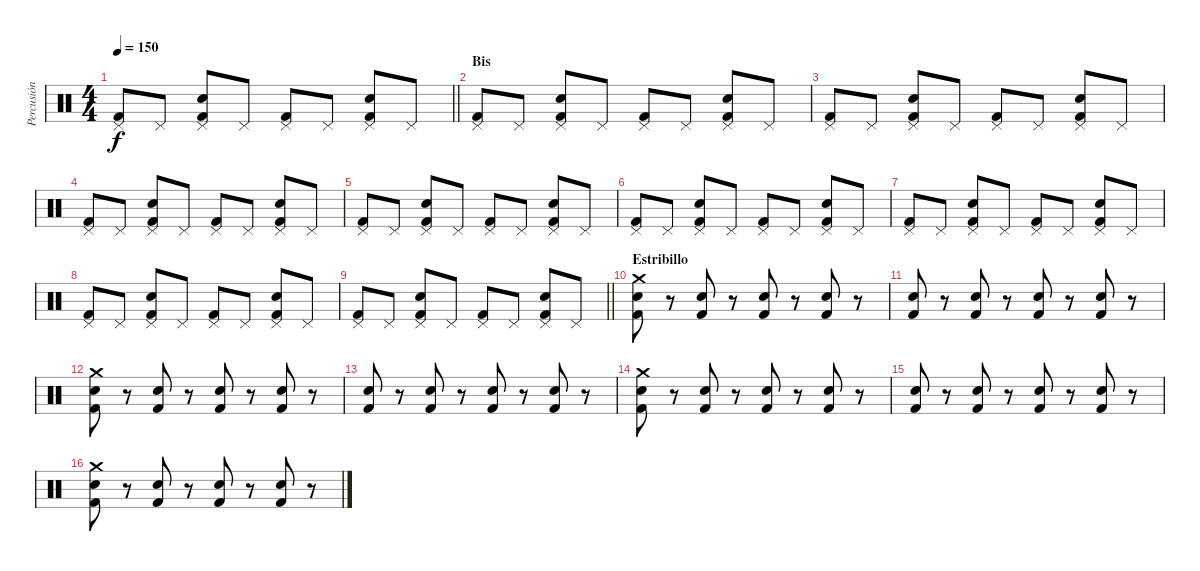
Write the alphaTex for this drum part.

\track ("Percusión" "Percusión") {instrument percussion}
\staff {score}
\articulation defaults
\ts (4 4)
\tempo 150
\clef neutral
\barLineRight lightlight
\ks c
("Pedal Hi-Hat (hit)" "Kick (hit) 2").8{dy f} "Pedal Hi-Hat (hit)".8 ("Electric Snare (hit)" "Pedal Hi-Hat (hit)" "Kick (hit) 2").8 "Pedal Hi-Hat (hit)".8 ("Pedal Hi-Hat (hit)" "Kick (hit) 2").8 "Pedal Hi-Hat (hit)".8 ("Electric Snare (hit)" "Pedal Hi-Hat (hit)" "Kick (hit) 2").8 "Pedal Hi-Hat (hit)".8 |
\section ("" "Bis")
("Pedal Hi-Hat (hit)" "Kick (hit) 2").8 "Pedal Hi-Hat (hit)".8 ("Electric Snare (hit)" "Pedal Hi-Hat (hit)" "Kick (hit) 2").8 "Pedal Hi-Hat (hit)".8 ("Pedal Hi-Hat (hit)" "Kick (hit) 2").8 "Pedal Hi-Hat (hit)".8 ("Electric Snare (hit)" "Pedal Hi-Hat (hit)" "Kick (hit) 2").8 "Pedal Hi-Hat (hit)".8 |
("Pedal Hi-Hat (hit)" "Kick (hit) 2").8 "Pedal Hi-Hat (hit)".8 ("Electric Snare (hit)" "Pedal Hi-Hat (hit)" "Kick (hit) 2").8 "Pedal Hi-Hat (hit)".8 ("Pedal Hi-Hat (hit)" "Kick (hit) 2").8 "Pedal Hi-Hat (hit)".8 ("Electric Snare (hit)" "Pedal Hi-Hat (hit)" "Kick (hit) 2").8 "Pedal Hi-Hat (hit)".8 |
("Pedal Hi-Hat (hit)" "Kick (hit) 2").8 "Pedal Hi-Hat (hit)".8 ("Electric Snare (hit)" "Pedal Hi-Hat (hit)" "Kick (hit) 2").8 "Pedal Hi-Hat (hit)".8 ("Pedal Hi-Hat (hit)" "Kick (hit) 2").8 "Pedal Hi-Hat (hit)".8 ("Electric Snare (hit)" "Pedal Hi-Hat (hit)" "Kick (hit) 2").8 "Pedal Hi-Hat (hit)".8 |
("Pedal Hi-Hat (hit)" "Kick (hit) 2").8 "Pedal Hi-Hat (hit)".8 ("Electric Snare (hit)" "Pedal Hi-Hat (hit)" "Kick (hit) 2").8 "Pedal Hi-Hat (hit)".8 ("Pedal Hi-Hat (hit)" "Kick (hit) 2").8 "Pedal Hi-Hat (hit)".8 ("Electric Snare (hit)" "Pedal Hi-Hat (hit)" "Kick (hit) 2").8 "Pedal Hi-Hat (hit)".8 |
("Pedal Hi-Hat (hit)" "Kick (hit) 2").8 "Pedal Hi-Hat (hit)".8 ("Electric Snare (hit)" "Pedal Hi-Hat (hit)" "Kick (hit) 2").8 "Pedal Hi-Hat (hit)".8 ("Pedal Hi-Hat (hit)" "Kick (hit) 2").8 "Pedal Hi-Hat (hit)".8 ("Electric Snare (hit)" "Pedal Hi-Hat (hit)" "Kick (hit) 2").8 "Pedal Hi-Hat (hit)".8 |
("Pedal Hi-Hat (hit)" "Kick (hit) 2").8 "Pedal Hi-Hat (hit)".8 ("Electric Snare (hit)" "Pedal Hi-Hat (hit)" "Kick (hit) 2").8 "Pedal Hi-Hat (hit)".8 ("Pedal Hi-Hat (hit)" "Kick (hit) 2").8 "Pedal Hi-Hat (hit)".8 ("Electric Snare (hit)" "Pedal Hi-Hat (hit)" "Kick (hit) 2").8 "Pedal Hi-Hat (hit)".8 |
("Pedal Hi-Hat (hit)" "Kick (hit) 2").8 "Pedal Hi-Hat (hit)".8 ("Electric Snare (hit)" "Pedal Hi-Hat (hit)" "Kick (hit) 2").8 "Pedal Hi-Hat (hit)".8 ("Pedal Hi-Hat (hit)" "Kick (hit) 2").8 "Pedal Hi-Hat (hit)".8 ("Electric Snare (hit)" "Pedal Hi-Hat (hit)" "Kick (hit) 2").8 "Pedal Hi-Hat (hit)".8 |
\barLineRight lightlight
("Pedal Hi-Hat (hit)" "Kick (hit) 2").8 "Pedal Hi-Hat (hit)".8 ("Electric Snare (hit)" "Pedal Hi-Hat (hit)" "Kick (hit) 2").8 "Pedal Hi-Hat (hit)".8 ("Pedal Hi-Hat (hit)" "Kick (hit) 2").8 "Pedal Hi-Hat (hit)".8 ("Electric Snare (hit)" "Pedal Hi-Hat (hit)" "Kick (hit) 2").8 "Pedal Hi-Hat (hit)".8 |
\section ("" "Estribillo")
("Crash medium (hit)" "Electric Snare (hit)" "Kick (hit) 2").8 r.8 ("Electric Snare (hit)" "Kick (hit) 2").8 r.8 ("Electric Snare (hit)" "Kick (hit) 2").8 r.8 ("Electric Snare (hit)" "Kick (hit) 2").8 r.8 |
("Electric Snare (hit)" "Kick (hit) 2").8 r.8 ("Electric Snare (hit)" "Kick (hit) 2").8 r.8 ("Electric Snare (hit)" "Kick (hit) 2").8 r.8 ("Electric Snare (hit)" "Kick (hit) 2").8 r.8 |
("Crash medium (hit)" "Electric Snare (hit)" "Kick (hit) 2").8 r.8 ("Electric Snare (hit)" "Kick (hit) 2").8 r.8 ("Electric Snare (hit)" "Kick (hit) 2").8 r.8 ("Electric Snare (hit)" "Kick (hit) 2").8 r.8 |
("Electric Snare (hit)" "Kick (hit) 2").8 r.8 ("Electric Snare (hit)" "Kick (hit) 2").8 r.8 ("Electric Snare (hit)" "Kick (hit) 2").8 r.8 ("Electric Snare (hit)" "Kick (hit) 2").8 r.8 |
("Crash medium (hit)" "Electric Snare (hit)" "Kick (hit) 2").8 r.8 ("Electric Snare (hit)" "Kick (hit) 2").8 r.8 ("Electric Snare (hit)" "Kick (hit) 2").8 r.8 ("Electric Snare (hit)" "Kick (hit) 2").8 r.8 |
("Electric Snare (hit)" "Kick (hit) 2").8 r.8 ("Electric Snare (hit)" "Kick (hit) 2").8 r.8 ("Electric Snare (hit)" "Kick (hit) 2").8 r.8 ("Electric Snare (hit)" "Kick (hit) 2").8 r.8 |
("Crash medium (hit)" "Electric Snare (hit)" "Kick (hit) 2").8 r.8 ("Electric Snare (hit)" "Kick (hit) 2").8 r.8 ("Electric Snare (hit)" "Kick (hit) 2").8 r.8 ("Electric Snare (hit)" "Kick (hit) 2").8 r.8
